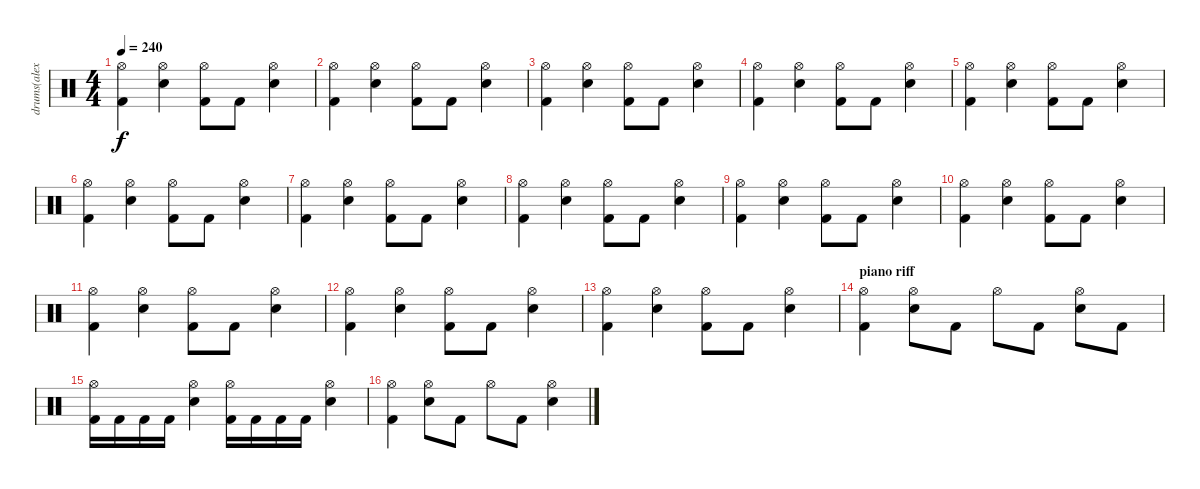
\track ("drums(alex holzshwart)" "drums(alex") {instrument percussion}
\staff {score}
\articulation defaults
\ts (4 4)
\tempo 240
\clef neutral
\ks c
("Hi-Hat (open)" "Kick (hit) 2").4{dy f} ("Hi-Hat (open)" "Electric Snare (hit)").4 ("Hi-Hat (open)" "Kick (hit) 2").8 "Kick (hit) 2".8 ("Hi-Hat (open)" "Electric Snare (hit)").4 |
("Hi-Hat (open)" "Kick (hit) 2").4 ("Hi-Hat (open)" "Electric Snare (hit)").4 ("Hi-Hat (open)" "Kick (hit) 2").8 "Kick (hit) 2".8 ("Hi-Hat (open)" "Electric Snare (hit)").4 |
("Hi-Hat (open)" "Kick (hit) 2").4 ("Hi-Hat (open)" "Electric Snare (hit)").4 ("Hi-Hat (open)" "Kick (hit) 2").8 "Kick (hit) 2".8 ("Hi-Hat (open)" "Electric Snare (hit)").4 |
("Hi-Hat (open)" "Kick (hit) 2").4 ("Hi-Hat (open)" "Electric Snare (hit)").4 ("Hi-Hat (open)" "Kick (hit) 2").8 "Kick (hit) 2".8 ("Hi-Hat (open)" "Electric Snare (hit)").4 |
("Hi-Hat (open)" "Kick (hit) 2").4 ("Hi-Hat (open)" "Electric Snare (hit)").4 ("Hi-Hat (open)" "Kick (hit) 2").8 "Kick (hit) 2".8 ("Hi-Hat (open)" "Electric Snare (hit)").4 |
("Hi-Hat (open)" "Kick (hit) 2").4 ("Hi-Hat (open)" "Electric Snare (hit)").4 ("Hi-Hat (open)" "Kick (hit) 2").8 "Kick (hit) 2".8 ("Hi-Hat (open)" "Electric Snare (hit)").4 |
("Hi-Hat (open)" "Kick (hit) 2").4 ("Hi-Hat (open)" "Electric Snare (hit)").4 ("Hi-Hat (open)" "Kick (hit) 2").8 "Kick (hit) 2".8 ("Hi-Hat (open)" "Electric Snare (hit)").4 |
("Hi-Hat (open)" "Kick (hit) 2").4 ("Hi-Hat (open)" "Electric Snare (hit)").4 ("Hi-Hat (open)" "Kick (hit) 2").8 "Kick (hit) 2".8 ("Hi-Hat (open)" "Electric Snare (hit)").4 |
("Hi-Hat (open)" "Kick (hit) 2").4 ("Hi-Hat (open)" "Electric Snare (hit)").4 ("Hi-Hat (open)" "Kick (hit) 2").8 "Kick (hit) 2".8 ("Hi-Hat (open)" "Electric Snare (hit)").4 |
("Hi-Hat (open)" "Kick (hit) 2").4 ("Hi-Hat (open)" "Electric Snare (hit)").4 ("Hi-Hat (open)" "Kick (hit) 2").8 "Kick (hit) 2".8 ("Hi-Hat (open)" "Electric Snare (hit)").4 |
("Hi-Hat (open)" "Kick (hit) 2").4 ("Hi-Hat (open)" "Electric Snare (hit)").4 ("Hi-Hat (open)" "Kick (hit) 2").8 "Kick (hit) 2".8 ("Hi-Hat (open)" "Electric Snare (hit)").4 |
("Hi-Hat (open)" "Kick (hit) 2").4 ("Hi-Hat (open)" "Electric Snare (hit)").4 ("Hi-Hat (open)" "Kick (hit) 2").8 "Kick (hit) 2".8 ("Hi-Hat (open)" "Electric Snare (hit)").4 |
("Hi-Hat (open)" "Kick (hit) 2").4 ("Hi-Hat (open)" "Electric Snare (hit)").4 ("Hi-Hat (open)" "Kick (hit) 2").8 "Kick (hit) 2".8 ("Hi-Hat (open)" "Electric Snare (hit)").4 |
\section ("" "piano riff")
("Hi-Hat (open)" "Kick (hit) 2").4 ("Hi-Hat (open)" "Electric Snare (hit)").8 "Kick (hit) 2".8 "Hi-Hat (open)".8 "Kick (hit) 2".8 ("Hi-Hat (open)" "Electric Snare (hit)").8 "Kick (hit) 2".8 |
("Hi-Hat (open)" "Kick (hit) 2").16 "Kick (hit) 2".16 "Kick (hit) 2".16 "Kick (hit) 2".16 ("Hi-Hat (open)" "Electric Snare (hit)").4 ("Hi-Hat (open)" "Kick (hit) 2").16 "Kick (hit) 2".16 "Kick (hit) 2".16 "Kick (hit) 2".16 ("Hi-Hat (open)" "Electric Snare (hit)").4 |
("Hi-Hat (open)" "Kick (hit) 2").4 ("Hi-Hat (open)" "Electric Snare (hit)").8 "Kick (hit) 2".8 "Hi-Hat (open)".8 "Kick (hit) 2".8 ("Hi-Hat (open)" "Electric Snare (hit)").4
